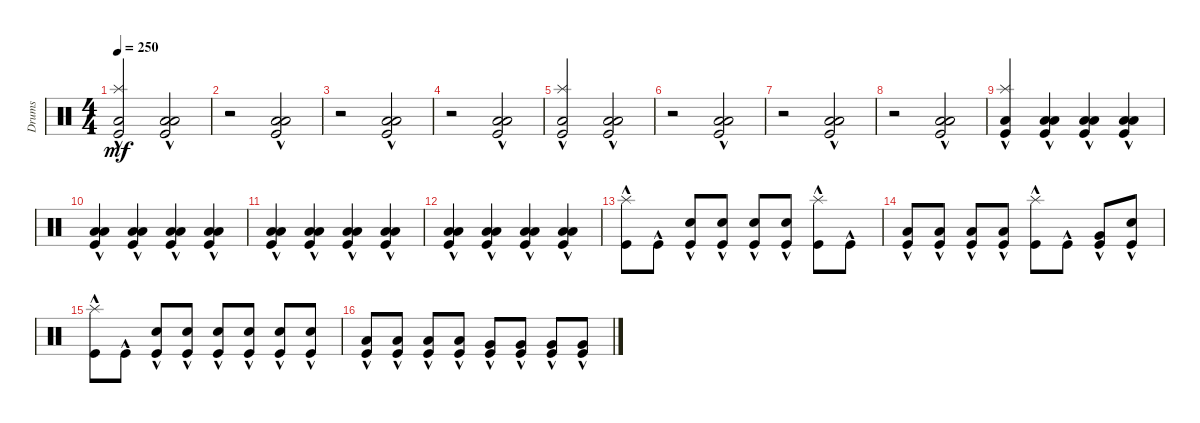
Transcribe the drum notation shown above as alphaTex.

\track ("Drums" "Drums") {instrument percussion}
\staff {score}
\articulation defaults
\ts (4 4)
\tempo 250
\clef neutral
\ks c
("Kick (hit)"{hac} "Splash (hit)"{hac} "Low Tom (hit)"{hac}).2{dy mf} ("Low Floor Tom (hit)"{hac} "Kick (hit)"{hac} "Low Tom (hit)"{hac}).2 |
r.2 ("Low Floor Tom (hit)"{hac} "Kick (hit)"{hac} "Low Tom (hit)"{hac}).2 |
r.2 ("Low Floor Tom (hit)"{hac} "Kick (hit)"{hac} "Low Tom (hit)"{hac}).2 |
r.2 ("Low Floor Tom (hit)"{hac} "Kick (hit)"{hac} "Low Tom (hit)"{hac}).2 |
("Kick (hit)"{hac} "Splash (hit)"{hac} "Low Tom (hit)"{hac}).2 ("Low Floor Tom (hit)"{hac} "Kick (hit)"{hac} "Low Tom (hit)"{hac}).2 |
r.2 ("Low Floor Tom (hit)"{hac} "Kick (hit)"{hac} "Low Tom (hit)"{hac}).2 |
r.2 ("Low Floor Tom (hit)"{hac} "Kick (hit)"{hac} "Low Tom (hit)"{hac}).2 |
r.2 ("Low Floor Tom (hit)"{hac} "Kick (hit)"{hac} "Low Tom (hit)"{hac}).2 |
("Kick (hit)"{hac} "Low Tom (hit)"{hac} "Splash (hit)"{hac}).4 ("Low Floor Tom (hit)"{hac} "Kick (hit)"{hac} "Low Tom (hit)"{hac}).4 ("Low Floor Tom (hit)"{hac} "Kick (hit)"{hac} "Low Tom (hit)"{hac}).4 ("Low Floor Tom (hit)"{hac} "Kick (hit)"{hac} "Low Tom (hit)"{hac}).4 |
("Low Floor Tom (hit)"{hac} "Kick (hit)"{hac} "Low Tom (hit)"{hac}).4 ("Low Floor Tom (hit)"{hac} "Kick (hit)"{hac} "Low Tom (hit)"{hac}).4 ("Low Floor Tom (hit)"{hac} "Kick (hit)"{hac} "Low Tom (hit)"{hac}).4 ("Low Floor Tom (hit)"{hac} "Kick (hit)"{hac} "Low Tom (hit)"{hac}).4 |
("Low Floor Tom (hit)"{hac} "Kick (hit)"{hac} "Low Tom (hit)"{hac}).4 ("Low Floor Tom (hit)"{hac} "Kick (hit)"{hac} "Low Tom (hit)"{hac}).4 ("Low Floor Tom (hit)"{hac} "Kick (hit)"{hac} "Low Tom (hit)"{hac}).4 ("Low Floor Tom (hit)"{hac} "Kick (hit)"{hac} "Low Tom (hit)"{hac}).4 |
("Low Floor Tom (hit)"{hac} "Kick (hit)"{hac} "Low Tom (hit)"{hac}).4 ("Low Floor Tom (hit)"{hac} "Kick (hit)"{hac} "Low Tom (hit)"{hac}).4 ("Low Floor Tom (hit)"{hac} "Kick (hit)"{hac} "Low Tom (hit)"{hac}).4 ("Low Floor Tom (hit)"{hac} "Kick (hit)"{hac} "Low Tom (hit)"{hac}).4 |
("Kick (hit)"{hac} "Splash (hit)"{hac}).8 "Kick (hit)"{hac}.8 ("Kick (hit)"{hac} "Snare (hit) 2"{hac}).8 ("Kick (hit)"{hac} "Snare (hit) 2"{hac}).8 ("Kick (hit)"{hac} "Snare (hit) 2"{hac}).8 ("Kick (hit)"{hac} "Snare (hit) 2"{hac}).8 ("Kick (hit)"{hac} "Splash (hit)"{hac}).8 "Kick (hit)"{hac}.8 |
("Kick (hit)"{hac} "Low Tom (hit)"{hac}).8 ("Kick (hit)"{hac} "Low Tom (hit)"{hac}).8 ("Kick (hit)"{hac} "Low Tom (hit)"{hac}).8 ("Kick (hit)"{hac} "Low Tom (hit)"{hac}).8 ("Kick (hit)"{hac} "Splash (hit)"{hac}).8 "Kick (hit)"{hac}.8 ("Kick (hit)"{hac} "Very Low Tom (hit)"{hac}).8 ("Kick (hit)"{hac} "Snare (hit) 2"{hac}).8 |
("Kick (hit)"{hac} "Splash (hit)"{hac}).8 "Kick (hit)"{hac}.8 ("Kick (hit)"{hac} "Snare (hit) 2"{hac}).8 ("Kick (hit)"{hac} "Snare (hit) 2"{hac}).8 ("Kick (hit)"{hac} "Snare (hit) 2"{hac}).8 ("Kick (hit)"{hac} "Snare (hit) 2"{hac}).8 ("Kick (hit)"{hac} "Snare (hit) 2"{hac}).8 ("Kick (hit)"{hac} "Snare (hit) 2"{hac}).8 |
("Kick (hit)"{hac} "Low Tom (hit)"{hac}).8 ("Kick (hit)"{hac} "Low Tom (hit)"{hac}).8 ("Kick (hit)"{hac} "Low Tom (hit)"{hac}).8 ("Kick (hit)"{hac} "Low Tom (hit)"{hac}).8 ("Kick (hit)"{hac} "Very Low Tom (hit)"{hac}).8 ("Kick (hit)"{hac} "Very Low Tom (hit)"{hac}).8 ("Kick (hit)"{hac} "Very Low Tom (hit)"{hac}).8 ("Kick (hit)"{hac} "Very Low Tom (hit)"{hac}).8
